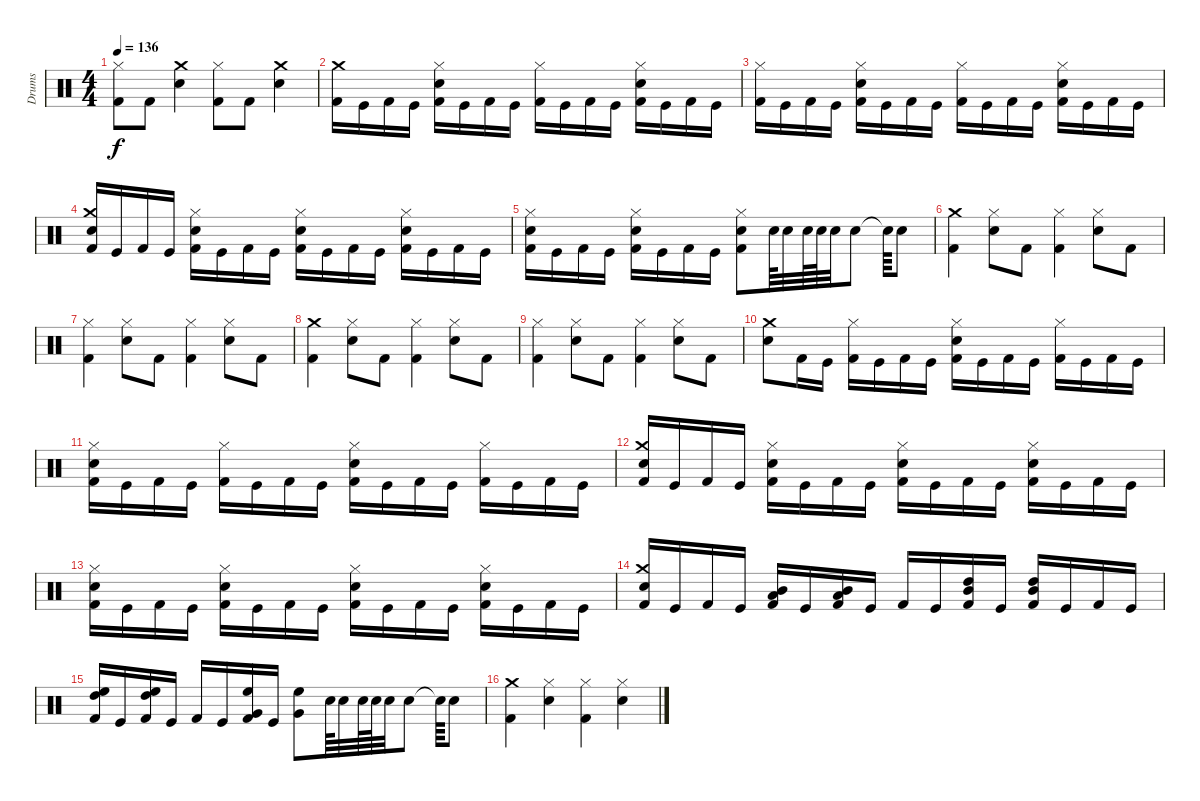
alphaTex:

\track ("Drums" "Drums") {instrument percussion}
\staff {score}
\articulation defaults
\ts (4 4)
\tempo 136
\clef neutral
\ks c
("Hi-Hat (closed)" "Kick (hit) 2").8{dy f} "Kick (hit) 2".8 ("Crash medium (hit)" "Snare (hit) 2").4 ("Hi-Hat (closed)" "Kick (hit) 2").8 "Kick (hit) 2".8 ("Crash medium (hit)" "Snare (hit) 2").4 |
("Crash medium (hit)" "Kick (hit) 2").16 "Kick (hit)".16 "Kick (hit) 2".16 "Kick (hit)".16 ("Snare (hit) 2" "Hi-Hat (closed)" "Kick (hit) 2").16 "Kick (hit)".16 "Kick (hit) 2".16 "Kick (hit)".16 ("Hi-Hat (closed)" "Kick (hit) 2").16 "Kick (hit)".16 "Kick (hit) 2".16 "Kick (hit)".16 ("Snare (hit) 2" "Hi-Hat (closed)" "Kick (hit) 2").16 "Kick (hit)".16 "Kick (hit) 2".16 "Kick (hit)".16 |
("Hi-Hat (closed)" "Kick (hit) 2").16 "Kick (hit)".16 "Kick (hit) 2".16 "Kick (hit)".16 ("Snare (hit) 2" "Hi-Hat (closed)" "Kick (hit) 2").16 "Kick (hit)".16 "Kick (hit) 2".16 "Kick (hit)".16 ("Hi-Hat (closed)" "Kick (hit) 2").16 "Kick (hit)".16 "Kick (hit) 2".16 "Kick (hit)".16 ("Snare (hit) 2" "Hi-Hat (closed)" "Kick (hit) 2").16 "Kick (hit)".16 "Kick (hit) 2".16 "Kick (hit)".16 |
("Snare (hit) 2" "Crash medium (hit)" "Kick (hit) 2").16 "Kick (hit)".16 "Kick (hit) 2".16 "Kick (hit)".16 ("Hi-Hat (closed)" "Snare (hit) 2" "Kick (hit) 2").16 "Kick (hit)".16 "Kick (hit) 2".16 "Kick (hit)".16 ("Hi-Hat (closed)" "Snare (hit) 2" "Kick (hit) 2").16 "Kick (hit)".16 "Kick (hit) 2".16 "Kick (hit)".16 ("Snare (hit) 2" "Hi-Hat (closed)" "Kick (hit) 2").16 "Kick (hit)".16 "Kick (hit) 2".16 "Kick (hit)".16 |
("Hi-Hat (closed)" "Snare (hit) 2" "Kick (hit) 2").16 "Kick (hit)".16 "Kick (hit) 2".16 "Kick (hit)".16 ("Snare (hit) 2" "Hi-Hat (closed)" "Kick (hit) 2").16 "Kick (hit)".16 "Kick (hit) 2".16 "Kick (hit)".16 ("Kick (hit) 2" "Hi-Hat (closed)" "Snare (hit) 2").8 "Snare (hit) 2".64 "Snare (hit) 2".32 "Snare (hit) 2".64 "Snare (hit) 2".64 "Snare (hit) 2".32 "Snare (hit) 2".8 "Snare (hit)"{t}.64 "Snare (hit) 2".8 |
("Kick (hit) 2" "Crash medium (hit)").4 ("Hi-Hat (closed)" "Snare (hit) 2").8 "Kick (hit) 2".8 ("Kick (hit) 2" "Hi-Hat (closed)").4 ("Hi-Hat (closed)" "Snare (hit) 2").8 "Kick (hit) 2".8 |
("Kick (hit) 2" "Hi-Hat (closed)").4 ("Hi-Hat (closed)" "Snare (hit) 2").8 "Kick (hit) 2".8 ("Kick (hit) 2" "Hi-Hat (closed)").4 ("Hi-Hat (closed)" "Snare (hit) 2").8 "Kick (hit) 2".8 |
("Kick (hit) 2" "Crash medium (hit)").4 ("Hi-Hat (closed)" "Snare (hit) 2").8 "Kick (hit) 2".8 ("Kick (hit) 2" "Hi-Hat (closed)").4 ("Hi-Hat (closed)" "Snare (hit) 2").8 "Kick (hit) 2".8 |
("Kick (hit) 2" "Hi-Hat (closed)").4 ("Hi-Hat (closed)" "Snare (hit) 2").8 "Kick (hit) 2".8 ("Kick (hit) 2" "Hi-Hat (closed)").4 ("Hi-Hat (closed)" "Snare (hit) 2").8 "Kick (hit) 2".8 |
("Snare (hit) 2" "Crash medium (hit)").8 "Kick (hit) 2".16 "Kick (hit)".16 ("Hi-Hat (closed)" "Kick (hit) 2").16 "Kick (hit)".16 "Kick (hit) 2".16 "Kick (hit)".16 ("Snare (hit) 2" "Hi-Hat (closed)" "Kick (hit) 2").16 "Kick (hit)".16 "Kick (hit) 2".16 "Kick (hit)".16 ("Hi-Hat (closed)" "Kick (hit) 2").16 "Kick (hit)".16 "Kick (hit) 2".16 "Kick (hit)".16 |
("Snare (hit) 2" "Hi-Hat (closed)" "Kick (hit) 2").16 "Kick (hit)".16 "Kick (hit) 2".16 "Kick (hit)".16 ("Hi-Hat (closed)" "Kick (hit) 2").16 "Kick (hit)".16 "Kick (hit) 2".16 "Kick (hit)".16 ("Snare (hit) 2" "Hi-Hat (closed)" "Kick (hit) 2").16 "Kick (hit)".16 "Kick (hit) 2".16 "Kick (hit)".16 ("Hi-Hat (closed)" "Kick (hit) 2").16 "Kick (hit)".16 "Kick (hit) 2".16 "Kick (hit)".16 |
("Snare (hit) 2" "Crash medium (hit)" "Kick (hit) 2").16 "Kick (hit)".16 "Kick (hit) 2".16 "Kick (hit)".16 ("Hi-Hat (closed)" "Snare (hit) 2" "Kick (hit) 2").16 "Kick (hit)".16 "Kick (hit) 2".16 "Kick (hit)".16 ("Snare (hit) 2" "Hi-Hat (closed)" "Kick (hit) 2").16 "Kick (hit)".16 "Kick (hit) 2".16 "Kick (hit)".16 ("Hi-Hat (closed)" "Snare (hit) 2" "Kick (hit) 2").16 "Kick (hit)".16 "Kick (hit) 2".16 "Kick (hit)".16 |
("Snare (hit) 2" "Hi-Hat (closed)" "Kick (hit) 2").16 "Kick (hit)".16 "Kick (hit) 2".16 "Kick (hit)".16 ("Hi-Hat (closed)" "Snare (hit) 2" "Kick (hit) 2").16 "Kick (hit)".16 "Kick (hit) 2".16 "Kick (hit)".16 ("Snare (hit) 2" "Hi-Hat (closed)" "Kick (hit) 2").16 "Kick (hit)".16 "Kick (hit) 2".16 "Kick (hit)".16 ("Hi-Hat (closed)" "Snare (hit) 2" "Kick (hit) 2").16 "Kick (hit)".16 "Kick (hit) 2".16 "Kick (hit)".16 |
("Snare (hit) 2" "Crash medium (hit)" "Kick (hit) 2").16 "Kick (hit)".16 "Kick (hit) 2".16 "Kick (hit)".16 ("Mid Tom (hit)" "Low Tom (hit)" "Kick (hit) 2").16 "Kick (hit)".16 ("Low Tom (hit)" "Mid Tom (hit)" "Kick (hit) 2").16 "Kick (hit)".16 "Kick (hit) 2".16 "Kick (hit)".16 ("High Tom (hit)" "Mid Tom (hit)" "Kick (hit) 2").16 "Kick (hit)".16 ("High Tom (hit)" "Mid Tom (hit)" "Kick (hit) 2").16 "Kick (hit)".16 "Kick (hit) 2".16 "Kick (hit)".16 |
("High Floor Tom (hit)" "High Tom (hit)" "Kick (hit) 2").16 "Kick (hit)".16 ("High Tom (hit)" "High Floor Tom (hit)" "Kick (hit) 2").16 "Kick (hit)".16 "Kick (hit) 2".16 "Kick (hit)".16 ("Very Low Tom (hit)" "High Floor Tom (hit)" "Kick (hit) 2").16 "Kick (hit)".16 ("Very Low Tom (hit)" "High Floor Tom (hit)").8 "Snare (hit) 2".64 "Snare (hit) 2".32 "Snare (hit) 2".64 "Snare (hit) 2".64 "Snare (hit) 2".32 "Snare (hit) 2".8 "Snare (hit)"{t}.64 "Snare (hit) 2".8 |
("Kick (hit) 2" "Crash medium (hit)").4 ("Hi-Hat (closed)" "Snare (hit) 2").4 ("Kick (hit) 2" "Hi-Hat (closed)").4 ("Hi-Hat (closed)" "Snare (hit) 2").4
